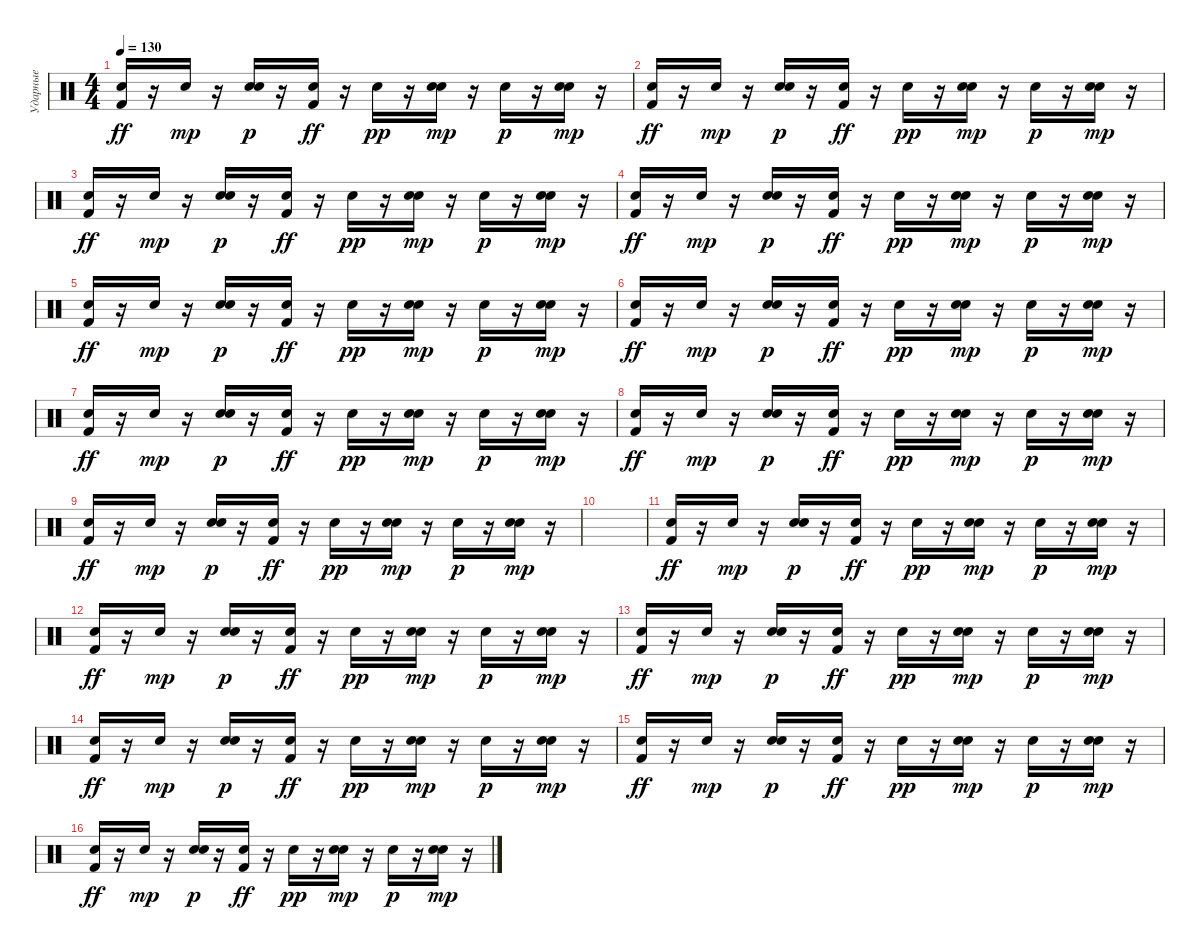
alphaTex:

\track ("Ударные" "Ударные") {instrument percussion}
\staff {score}
\articulation defaults
\ts (4 4)
\tempo 130
\clef neutral
\ks c
("Hand Clap (hit)" "Kick (hit) 2").16{dy ff} r.16 "Hand Clap (hit)".16{dy mp} r.16 ("Hand Clap (hit)" "Electric Snare (hit)").16{dy p} r.16 ("Hand Clap (hit)" "Kick (hit) 2").16{dy ff} r.16 "Hand Clap (hit)".16{dy pp} r.16 ("Hand Clap (hit)" "Electric Snare (hit)").16{dy mp} r.16 "Hand Clap (hit)".16{dy p} r.16 ("Hand Clap (hit)" "Electric Snare (hit)").16{dy mp} r.16 |
("Hand Clap (hit)" "Kick (hit) 2").16{dy ff} r.16 "Hand Clap (hit)".16{dy mp} r.16 ("Hand Clap (hit)" "Electric Snare (hit)").16{dy p} r.16 ("Hand Clap (hit)" "Kick (hit) 2").16{dy ff} r.16 "Hand Clap (hit)".16{dy pp} r.16 ("Hand Clap (hit)" "Electric Snare (hit)").16{dy mp} r.16 "Hand Clap (hit)".16{dy p} r.16 ("Hand Clap (hit)" "Electric Snare (hit)").16{dy mp} r.16 |
("Hand Clap (hit)" "Kick (hit) 2").16{dy ff} r.16 "Hand Clap (hit)".16{dy mp} r.16 ("Hand Clap (hit)" "Electric Snare (hit)").16{dy p} r.16 ("Hand Clap (hit)" "Kick (hit) 2").16{dy ff} r.16 "Hand Clap (hit)".16{dy pp} r.16 ("Hand Clap (hit)" "Electric Snare (hit)").16{dy mp} r.16 "Hand Clap (hit)".16{dy p} r.16 ("Hand Clap (hit)" "Electric Snare (hit)").16{dy mp} r.16 |
("Hand Clap (hit)" "Kick (hit) 2").16{dy ff} r.16 "Hand Clap (hit)".16{dy mp} r.16 ("Hand Clap (hit)" "Electric Snare (hit)").16{dy p} r.16 ("Hand Clap (hit)" "Kick (hit) 2").16{dy ff} r.16 "Hand Clap (hit)".16{dy pp} r.16 ("Hand Clap (hit)" "Electric Snare (hit)").16{dy mp} r.16 "Hand Clap (hit)".16{dy p} r.16 ("Hand Clap (hit)" "Electric Snare (hit)").16{dy mp} r.16 |
("Hand Clap (hit)" "Kick (hit) 2").16{dy ff} r.16 "Hand Clap (hit)".16{dy mp} r.16 ("Hand Clap (hit)" "Electric Snare (hit)").16{dy p} r.16 ("Hand Clap (hit)" "Kick (hit) 2").16{dy ff} r.16 "Hand Clap (hit)".16{dy pp} r.16 ("Hand Clap (hit)" "Electric Snare (hit)").16{dy mp} r.16 "Hand Clap (hit)".16{dy p} r.16 ("Hand Clap (hit)" "Electric Snare (hit)").16{dy mp} r.16 |
("Hand Clap (hit)" "Kick (hit) 2").16{dy ff} r.16 "Hand Clap (hit)".16{dy mp} r.16 ("Hand Clap (hit)" "Electric Snare (hit)").16{dy p} r.16 ("Hand Clap (hit)" "Kick (hit) 2").16{dy ff} r.16 "Hand Clap (hit)".16{dy pp} r.16 ("Hand Clap (hit)" "Electric Snare (hit)").16{dy mp} r.16 "Hand Clap (hit)".16{dy p} r.16 ("Hand Clap (hit)" "Electric Snare (hit)").16{dy mp} r.16 |
("Hand Clap (hit)" "Kick (hit) 2").16{dy ff} r.16 "Hand Clap (hit)".16{dy mp} r.16 ("Hand Clap (hit)" "Electric Snare (hit)").16{dy p} r.16 ("Hand Clap (hit)" "Kick (hit) 2").16{dy ff} r.16 "Hand Clap (hit)".16{dy pp} r.16 ("Hand Clap (hit)" "Electric Snare (hit)").16{dy mp} r.16 "Hand Clap (hit)".16{dy p} r.16 ("Hand Clap (hit)" "Electric Snare (hit)").16{dy mp} r.16 |
("Hand Clap (hit)" "Kick (hit) 2").16{dy ff} r.16 "Hand Clap (hit)".16{dy mp} r.16 ("Hand Clap (hit)" "Electric Snare (hit)").16{dy p} r.16 ("Hand Clap (hit)" "Kick (hit) 2").16{dy ff} r.16 "Hand Clap (hit)".16{dy pp} r.16 ("Hand Clap (hit)" "Electric Snare (hit)").16{dy mp} r.16 "Hand Clap (hit)".16{dy p} r.16 ("Hand Clap (hit)" "Electric Snare (hit)").16{dy mp} r.16 |
("Hand Clap (hit)" "Kick (hit) 2").16{dy ff} r.16 "Hand Clap (hit)".16{dy mp} r.16 ("Hand Clap (hit)" "Electric Snare (hit)").16{dy p} r.16 ("Hand Clap (hit)" "Kick (hit) 2").16{dy ff} r.16 "Hand Clap (hit)".16{dy pp} r.16 ("Hand Clap (hit)" "Electric Snare (hit)").16{dy mp} r.16 "Hand Clap (hit)".16{dy p} r.16 ("Hand Clap (hit)" "Electric Snare (hit)").16{dy mp} r.16 |
|
("Hand Clap (hit)" "Kick (hit) 2").16{dy ff} r.16 "Hand Clap (hit)".16{dy mp} r.16 ("Hand Clap (hit)" "Electric Snare (hit)").16{dy p} r.16 ("Hand Clap (hit)" "Kick (hit) 2").16{dy ff} r.16 "Hand Clap (hit)".16{dy pp} r.16 ("Hand Clap (hit)" "Electric Snare (hit)").16{dy mp} r.16 "Hand Clap (hit)".16{dy p} r.16 ("Hand Clap (hit)" "Electric Snare (hit)").16{dy mp} r.16 |
("Hand Clap (hit)" "Kick (hit) 2").16{dy ff} r.16 "Hand Clap (hit)".16{dy mp} r.16 ("Hand Clap (hit)" "Electric Snare (hit)").16{dy p} r.16 ("Hand Clap (hit)" "Kick (hit) 2").16{dy ff} r.16 "Hand Clap (hit)".16{dy pp} r.16 ("Hand Clap (hit)" "Electric Snare (hit)").16{dy mp} r.16 "Hand Clap (hit)".16{dy p} r.16 ("Hand Clap (hit)" "Electric Snare (hit)").16{dy mp} r.16 |
("Hand Clap (hit)" "Kick (hit) 2").16{dy ff} r.16 "Hand Clap (hit)".16{dy mp} r.16 ("Hand Clap (hit)" "Electric Snare (hit)").16{dy p} r.16 ("Hand Clap (hit)" "Kick (hit) 2").16{dy ff} r.16 "Hand Clap (hit)".16{dy pp} r.16 ("Hand Clap (hit)" "Electric Snare (hit)").16{dy mp} r.16 "Hand Clap (hit)".16{dy p} r.16 ("Hand Clap (hit)" "Electric Snare (hit)").16{dy mp} r.16 |
("Hand Clap (hit)" "Kick (hit) 2").16{dy ff} r.16 "Hand Clap (hit)".16{dy mp} r.16 ("Hand Clap (hit)" "Electric Snare (hit)").16{dy p} r.16 ("Hand Clap (hit)" "Kick (hit) 2").16{dy ff} r.16 "Hand Clap (hit)".16{dy pp} r.16 ("Hand Clap (hit)" "Electric Snare (hit)").16{dy mp} r.16 "Hand Clap (hit)".16{dy p} r.16 ("Hand Clap (hit)" "Electric Snare (hit)").16{dy mp} r.16 |
("Hand Clap (hit)" "Kick (hit) 2").16{dy ff} r.16 "Hand Clap (hit)".16{dy mp} r.16 ("Hand Clap (hit)" "Electric Snare (hit)").16{dy p} r.16 ("Hand Clap (hit)" "Kick (hit) 2").16{dy ff} r.16 "Hand Clap (hit)".16{dy pp} r.16 ("Hand Clap (hit)" "Electric Snare (hit)").16{dy mp} r.16 "Hand Clap (hit)".16{dy p} r.16 ("Hand Clap (hit)" "Electric Snare (hit)").16{dy mp} r.16 |
("Hand Clap (hit)" "Kick (hit) 2").16{dy ff} r.16 "Hand Clap (hit)".16{dy mp} r.16 ("Hand Clap (hit)" "Electric Snare (hit)").16{dy p} r.16 ("Hand Clap (hit)" "Kick (hit) 2").16{dy ff} r.16 "Hand Clap (hit)".16{dy pp} r.16 ("Hand Clap (hit)" "Electric Snare (hit)").16{dy mp} r.16 "Hand Clap (hit)".16{dy p} r.16 ("Hand Clap (hit)" "Electric Snare (hit)").16{dy mp} r.16
